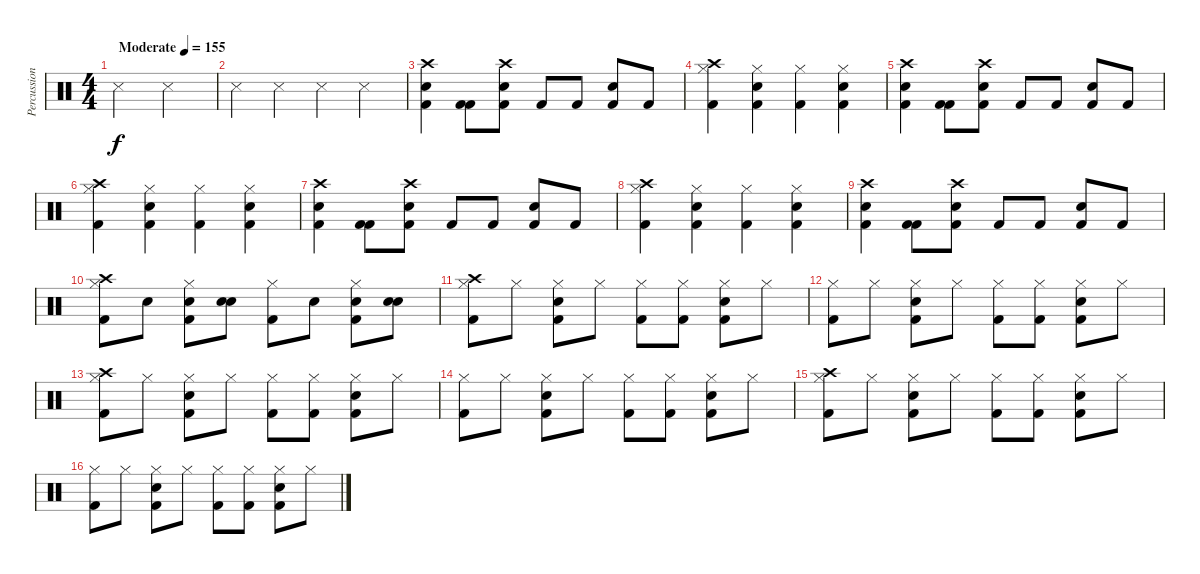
\track ("Percussion" "Percussion") {instrument percussion}
\staff {score}
\articulation defaults
\ts (4 4)
\tempo (155 "Moderate")
\clef neutral
\ks c "Snare (side stick) 3".2{dy f} "Snare (side stick) 3".2
|
"Snare (side stick) 3".4 "Snare (side stick) 3".4 "Snare (side stick) 3".4 "Snare (side stick) 3".4 |
("Crash high (hit)" "Snare (hit) 2" "Kick (hit) 2").4 ("Kick (hit) 2" "Kick (hit) 2").8 ("Crash high (hit)" "Snare (hit) 2" "Kick (hit) 2").8 "Kick (hit) 2".8 "Kick (hit) 2".8 ("Snare (hit) 2" "Kick (hit) 2").8 "Kick (hit) 2".8 |
("Crash high (hit)" "Kick (hit) 2" "Hi-Hat (closed)").4 ("Snare (hit) 2" "Kick (hit) 2" "Hi-Hat (closed)").4 ("Kick (hit) 2" "Hi-Hat (closed)").4 ("Snare (hit) 2" "Kick (hit) 2" "Hi-Hat (closed)").4 |
("Crash high (hit)" "Snare (hit) 2" "Kick (hit) 2").4 ("Kick (hit) 2" "Kick (hit) 2").8 ("Crash high (hit)" "Snare (hit) 2" "Kick (hit) 2").8 "Kick (hit) 2".8 "Kick (hit) 2".8 ("Snare (hit) 2" "Kick (hit) 2").8 "Kick (hit) 2".8 |
("Crash high (hit)" "Kick (hit) 2" "Hi-Hat (closed)").4 ("Snare (hit) 2" "Kick (hit) 2" "Hi-Hat (closed)").4 ("Kick (hit) 2" "Hi-Hat (closed)").4 ("Snare (hit) 2" "Kick (hit) 2" "Hi-Hat (closed)").4 |
("Crash high (hit)" "Snare (hit) 2" "Kick (hit) 2").4 ("Kick (hit) 2" "Kick (hit) 2").8 ("Crash high (hit)" "Snare (hit) 2" "Kick (hit) 2").8 "Kick (hit) 2".8 "Kick (hit) 2".8 ("Snare (hit) 2" "Kick (hit) 2").8 "Kick (hit) 2".8 |
("Crash high (hit)" "Kick (hit) 2" "Hi-Hat (closed)").4 ("Snare (hit) 2" "Kick (hit) 2" "Hi-Hat (closed)").4 ("Kick (hit) 2" "Hi-Hat (closed)").4 ("Snare (hit) 2" "Kick (hit) 2" "Hi-Hat (closed)").4 |
("Crash high (hit)" "Snare (hit) 2" "Kick (hit) 2").4 ("Kick (hit) 2" "Kick (hit) 2").8 ("Crash high (hit)" "Snare (hit) 2" "Kick (hit) 2").8 "Kick (hit) 2".8 "Kick (hit) 2".8 ("Snare (hit) 2" "Kick (hit) 2").8 "Kick (hit) 2".8 |
("Crash high (hit)" "Kick (hit) 2" "Hi-Hat (closed)").8 "Snare (hit)".8 ("Snare (hit) 2" "Kick (hit) 2" "Hi-Hat (closed)").8 ("Snare (hit)" "Snare (hit)").8 ("Kick (hit) 2" "Hi-Hat (closed)").8 "Snare (hit)".8 ("Snare (hit) 2" "Kick (hit) 2" "Hi-Hat (closed)").8 ("Snare (hit) 2" "Snare (hit)").8 |
("Crash high (hit)" "Kick (hit) 2" "Hi-Hat (closed)").8 "Hi-Hat (closed)".8 ("Kick (hit) 2" "Snare (hit) 2" "Hi-Hat (closed)").8 "Hi-Hat (closed)".8 ("Kick (hit) 2" "Hi-Hat (closed)").8 ("Kick (hit) 2" "Hi-Hat (closed)").8 ("Kick (hit) 2" "Snare (hit) 2" "Hi-Hat (closed)").8 "Hi-Hat (closed)".8 |
("Kick (hit) 2" "Hi-Hat (closed)").8 "Hi-Hat (closed)".8 ("Kick (hit) 2" "Snare (hit) 2" "Hi-Hat (closed)").8 "Hi-Hat (closed)".8 ("Kick (hit) 2" "Hi-Hat (closed)").8 ("Kick (hit) 2" "Hi-Hat (closed)").8 ("Kick (hit) 2" "Snare (hit) 2" "Hi-Hat (closed)").8 "Hi-Hat (closed)".8 |
("Crash high (hit)" "Kick (hit) 2" "Hi-Hat (closed)").8 "Hi-Hat (closed)".8 ("Kick (hit) 2" "Snare (hit) 2" "Hi-Hat (closed)").8 "Hi-Hat (closed)".8 ("Kick (hit) 2" "Hi-Hat (closed)").8 ("Kick (hit) 2" "Hi-Hat (closed)").8 ("Kick (hit) 2" "Snare (hit) 2" "Hi-Hat (closed)").8 "Hi-Hat (closed)".8 |
("Kick (hit) 2" "Hi-Hat (closed)").8 "Hi-Hat (closed)".8 ("Kick (hit) 2" "Snare (hit) 2" "Hi-Hat (closed)").8 "Hi-Hat (closed)".8 ("Kick (hit) 2" "Hi-Hat (closed)").8 ("Kick (hit) 2" "Hi-Hat (closed)").8 ("Kick (hit) 2" "Snare (hit) 2" "Hi-Hat (closed)").8 "Hi-Hat (closed)".8 |
("Crash high (hit)" "Kick (hit) 2" "Hi-Hat (closed)").8 "Hi-Hat (closed)".8 ("Kick (hit) 2" "Snare (hit) 2" "Hi-Hat (closed)").8 "Hi-Hat (closed)".8 ("Kick (hit) 2" "Hi-Hat (closed)").8 ("Kick (hit) 2" "Hi-Hat (closed)").8 ("Kick (hit) 2" "Snare (hit) 2" "Hi-Hat (closed)").8 "Hi-Hat (closed)".8 |
("Kick (hit) 2" "Hi-Hat (closed)").8 "Hi-Hat (closed)".8 ("Kick (hit) 2" "Snare (hit) 2" "Hi-Hat (closed)").8 "Hi-Hat (closed)".8 ("Kick (hit) 2" "Hi-Hat (closed)").8 ("Kick (hit) 2" "Hi-Hat (closed)").8 ("Kick (hit) 2" "Snare (hit) 2" "Hi-Hat (closed)").8 "Hi-Hat (closed)".8
